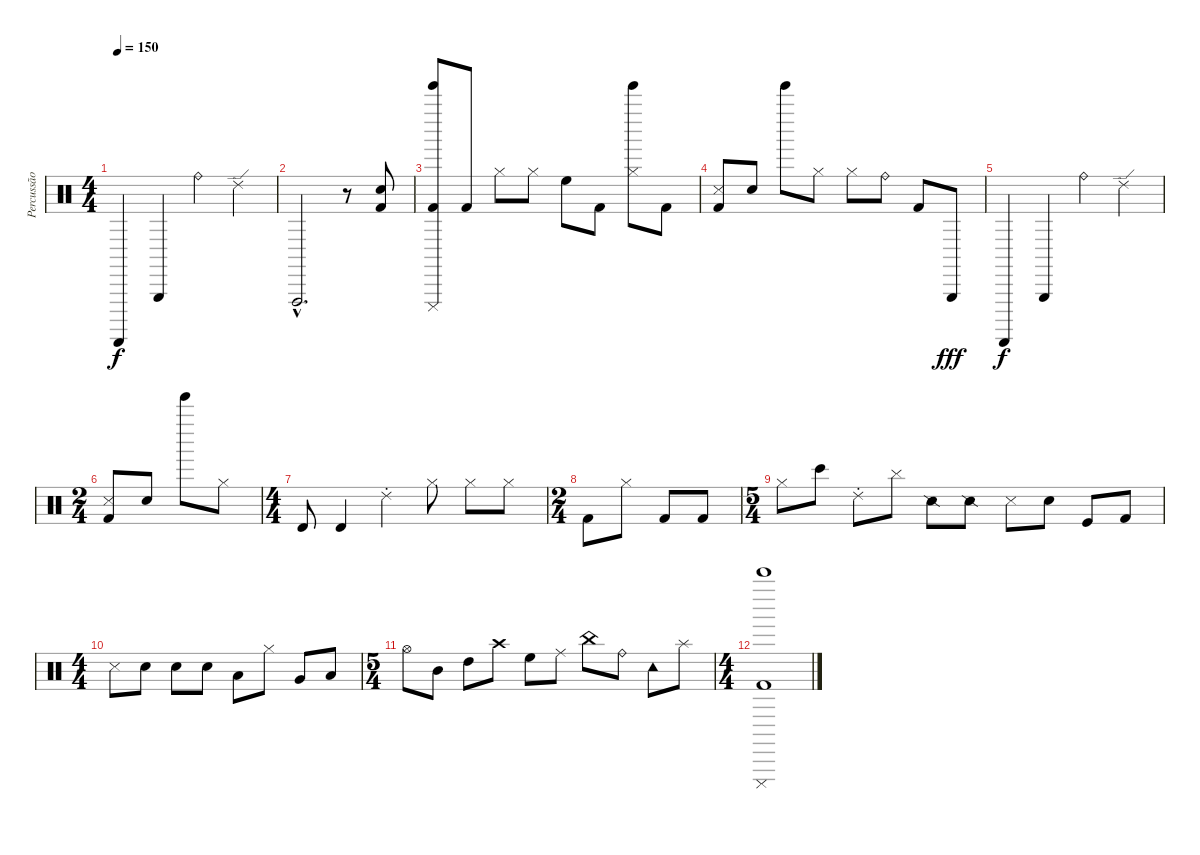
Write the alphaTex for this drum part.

\track ("Percussão" "Percussão") {instrument percussion}
\staff {score}
\articulation defaults
\ts (4 4)
\tempo 150
\clef neutral
\ks c "Guiro (scrap-return)".4{dy f} "Triangle (hit)".4 "Ride (bell)".4 "Ride (edge) 2".4
|
"Vibraslap (hit)"{hac}.2{d} r.8 ("Snare (hit) 2" "Kick (hit) 2").8 |
("Tinkle Bell (hit)" "Cuica (mute)" "Kick (hit) 2").8 "Kick (hit) 2".8 "Hi-Hat (closed)".8 "Hi-Hat (closed)".8 "High Floor Tom (hit)".8 "Kick (hit) 2".8 ("Tinkle Bell (hit)" "Hi-Hat (closed)").8 "Kick (hit) 2".8 |
("Snare (side stick) 3" "Kick (hit) 2").8 "Snare (hit) 2".8 "Tinkle Bell (hit)".8 "Hi-Hat (closed)".8 "Hi-Hat (closed)".8 "Ride (bell)".8 "Kick (hit) 2".8 "Triangle (hit)".8{dy fff} |
"Guiro (scrap-return)".4{dy f} "Triangle (hit)".4 "Ride (bell)".4 "Ride (edge) 2".4 |
\ts (2 4)
("Snare (side stick) 3" "Kick (hit) 2").8 "Snare (hit) 2".8 "Tinkle Bell (hit)".8 "Hi-Hat (closed)".8 |
\ts (4 4)
"Timbale high (hit)".8 "Timbale high (hit)".4 "Ride (choke) 2".4 "Hi-Hat (closed)".8 "Hi-Hat (closed)".8 "Hi-Hat (closed)".8 |
\ts (2 4)
"Kick (hit) 2".8 "Hi-Hat (closed)".8 "Kick (hit) 2".8 "Kick (hit) 2".8 |
\ts (5 4)
"Hi-Hat (closed)".8 "Bongo High (hit)".8 "Ride (choke) 2".8 "Cymbal (hit)".8 "Snare (side stick) 2".8 "Snare (side stick) 2".8 "Metronome (hit)".8 "Metronome (bell)".8 "Kick (hit)".8 "Kick (hit) 2".8 |
\ts (4 4)
"Snare (side stick) 3".8 "Snare (hit) 2".8 "Hand Clap (hit)".8 "Electric Snare (hit)".8 "Low Floor Tom (hit)".8 "Hi-Hat (closed)".8 "Very Low Tom (hit)".8 "Low Tom (hit)".8 |
\ts (5 4)
"Hi-Hat (open)".8 "Mid Tom (hit)".8 "High Tom (hit)".8 "Crash high (hit)".8 "High Floor Tom (hit)".8 "Ride (middle)".8 "China (hit)".8 "Ride (bell)".8 "Tambourine (hit)".8 "Splash (hit)".8 |
\ts (4 4)
("Kick (hit) 2" "Cuica (mute)" "Bell Tree (hit)").1
